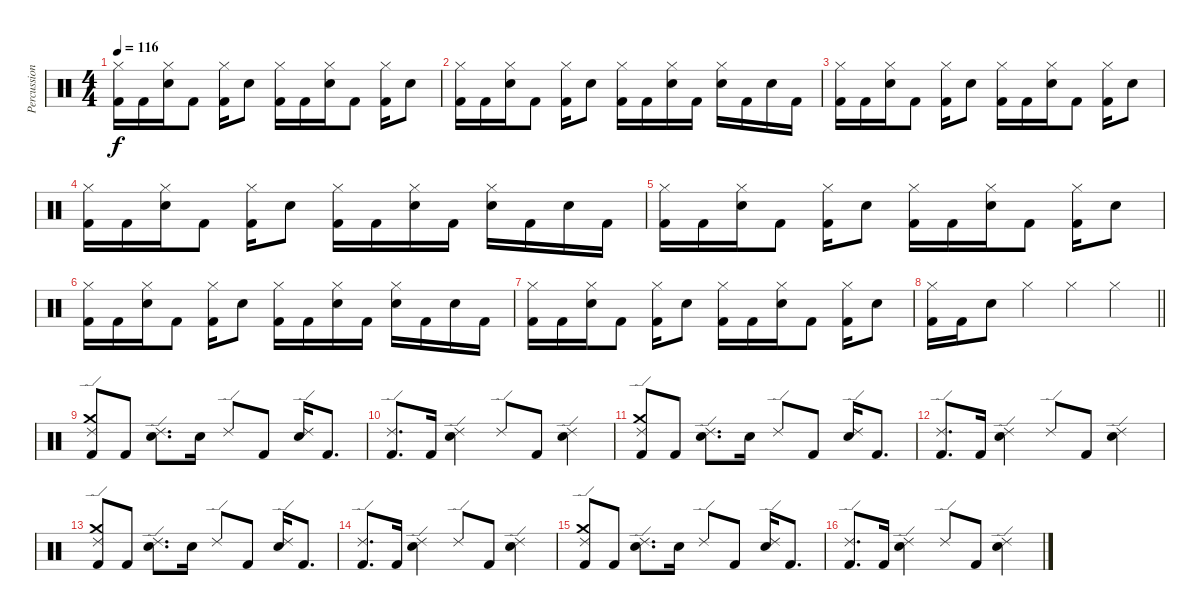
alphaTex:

\track ("Percussion" "Percussion") {instrument percussion}
\staff {score}
\articulation defaults
\ts (4 4)
\tempo 116
\clef neutral
\ks c
("Hi-Hat (closed)" "Kick (hit) 2").16{dy f} "Kick (hit) 2".16 ("Hi-Hat (closed)" "Snare (hit) 2").16 "Kick (hit) 2".8 ("Hi-Hat (closed)" "Kick (hit) 2").16 "Snare (hit) 2".8 ("Hi-Hat (closed)" "Kick (hit) 2").16 "Kick (hit) 2".16 ("Hi-Hat (closed)" "Snare (hit) 2").16 "Kick (hit) 2".8 ("Hi-Hat (closed)" "Kick (hit) 2").16 "Snare (hit) 2".8 |
("Hi-Hat (closed)" "Kick (hit) 2").16 "Kick (hit) 2".16 ("Hi-Hat (closed)" "Snare (hit) 2").16 "Kick (hit) 2".8 ("Hi-Hat (closed)" "Kick (hit) 2").16 "Snare (hit) 2".8 ("Hi-Hat (closed)" "Kick (hit) 2").16 "Kick (hit) 2".16 ("Hi-Hat (closed)" "Snare (hit) 2").16 "Kick (hit) 2".16 ("Hi-Hat (closed)" "Snare (hit) 2").16 "Kick (hit) 2".16 "Snare (hit) 2".16 "Kick (hit) 2".16 |
("Hi-Hat (closed)" "Kick (hit) 2").16 "Kick (hit) 2".16 ("Hi-Hat (closed)" "Snare (hit) 2").16 "Kick (hit) 2".8 ("Hi-Hat (closed)" "Kick (hit) 2").16 "Snare (hit) 2".8 ("Hi-Hat (closed)" "Kick (hit) 2").16 "Kick (hit) 2".16 ("Hi-Hat (closed)" "Snare (hit) 2").16 "Kick (hit) 2".8 ("Hi-Hat (closed)" "Kick (hit) 2").16 "Snare (hit) 2".8 |
("Hi-Hat (closed)" "Kick (hit) 2").16 "Kick (hit) 2".16 ("Hi-Hat (closed)" "Snare (hit) 2").16 "Kick (hit) 2".8 ("Hi-Hat (closed)" "Kick (hit) 2").16 "Snare (hit) 2".8 ("Hi-Hat (closed)" "Kick (hit) 2").16 "Kick (hit) 2".16 ("Hi-Hat (closed)" "Snare (hit) 2").16 "Kick (hit) 2".16 ("Hi-Hat (closed)" "Snare (hit) 2").16 "Kick (hit) 2".16 "Snare (hit) 2".16 "Kick (hit) 2".16 |
("Hi-Hat (closed)" "Kick (hit) 2").16 "Kick (hit) 2".16 ("Hi-Hat (closed)" "Snare (hit) 2").16 "Kick (hit) 2".8 ("Hi-Hat (closed)" "Kick (hit) 2").16 "Snare (hit) 2".8 ("Hi-Hat (closed)" "Kick (hit) 2").16 "Kick (hit) 2".16 ("Hi-Hat (closed)" "Snare (hit) 2").16 "Kick (hit) 2".8 ("Hi-Hat (closed)" "Kick (hit) 2").16 "Snare (hit) 2".8 |
("Hi-Hat (closed)" "Kick (hit) 2").16 "Kick (hit) 2".16 ("Hi-Hat (closed)" "Snare (hit) 2").16 "Kick (hit) 2".8 ("Hi-Hat (closed)" "Kick (hit) 2").16 "Snare (hit) 2".8 ("Hi-Hat (closed)" "Kick (hit) 2").16 "Kick (hit) 2".16 ("Hi-Hat (closed)" "Snare (hit) 2").16 "Kick (hit) 2".16 ("Hi-Hat (closed)" "Snare (hit) 2").16 "Kick (hit) 2".16 "Snare (hit) 2".16 "Kick (hit) 2".16 |
("Hi-Hat (closed)" "Kick (hit) 2").16 "Kick (hit) 2".16 ("Hi-Hat (closed)" "Snare (hit) 2").16 "Kick (hit) 2".8 ("Hi-Hat (closed)" "Kick (hit) 2").16 "Snare (hit) 2".8 ("Hi-Hat (closed)" "Kick (hit) 2").16 "Kick (hit) 2".16 ("Hi-Hat (closed)" "Snare (hit) 2").16 "Kick (hit) 2".8 ("Hi-Hat (closed)" "Kick (hit) 2").16 "Snare (hit) 2".8 |
\barLineRight lightlight
("Hi-Hat (closed)" "Kick (hit) 2").16 "Kick (hit) 2".16 "Snare (hit) 2".8 "Hi-Hat (closed)".4 "Hi-Hat (closed)".4 "Hi-Hat (closed)".4 |
("Crash medium (hit)" "Ride (edge) 2" "Kick (hit) 2").8 "Kick (hit) 2".8 ("Ride (edge) 2" "Snare (hit) 2").8{d} "Snare (hit) 2".16 "Ride (edge) 2".8 "Kick (hit) 2".8 ("Ride (edge) 2" "Snare (hit) 2").16 "Kick (hit) 2".8{d} |
("Ride (edge) 2" "Kick (hit) 2").8{d} "Kick (hit) 2".16 ("Ride (edge) 2" "Snare (hit) 2").4 "Ride (edge) 2".8 "Kick (hit) 2".8 ("Ride (edge) 2" "Snare (hit) 2").4 |
("Crash medium (hit)" "Ride (edge) 2" "Kick (hit) 2").8 "Kick (hit) 2".8 ("Ride (edge) 2" "Snare (hit) 2").8{d} "Snare (hit) 2".16 "Ride (edge) 2".8 "Kick (hit) 2".8 ("Ride (edge) 2" "Snare (hit) 2").16 "Kick (hit) 2".8{d} |
("Ride (edge) 2" "Kick (hit) 2").8{d} "Kick (hit) 2".16 ("Ride (edge) 2" "Snare (hit) 2").4 "Ride (edge) 2".8 "Kick (hit) 2".8 ("Ride (edge) 2" "Snare (hit) 2").4 |
("Crash medium (hit)" "Ride (edge) 2" "Kick (hit) 2").8 "Kick (hit) 2".8 ("Ride (edge) 2" "Snare (hit) 2").8{d} "Snare (hit) 2".16 "Ride (edge) 2".8 "Kick (hit) 2".8 ("Ride (edge) 2" "Snare (hit) 2").16 "Kick (hit) 2".8{d} |
("Ride (edge) 2" "Kick (hit) 2").8{d} "Kick (hit) 2".16 ("Ride (edge) 2" "Snare (hit) 2").4 "Ride (edge) 2".8 "Kick (hit) 2".8 ("Ride (edge) 2" "Snare (hit) 2").4 |
("Crash medium (hit)" "Ride (edge) 2" "Kick (hit) 2").8 "Kick (hit) 2".8 ("Ride (edge) 2" "Snare (hit) 2").8{d} "Snare (hit) 2".16 "Ride (edge) 2".8 "Kick (hit) 2".8 ("Ride (edge) 2" "Snare (hit) 2").16 "Kick (hit) 2".8{d} |
("Ride (edge) 2" "Kick (hit) 2").8{d} "Kick (hit) 2".16 ("Ride (edge) 2" "Snare (hit) 2").4 "Ride (edge) 2".8 "Kick (hit) 2".8 ("Ride (edge) 2" "Snare (hit) 2").4
